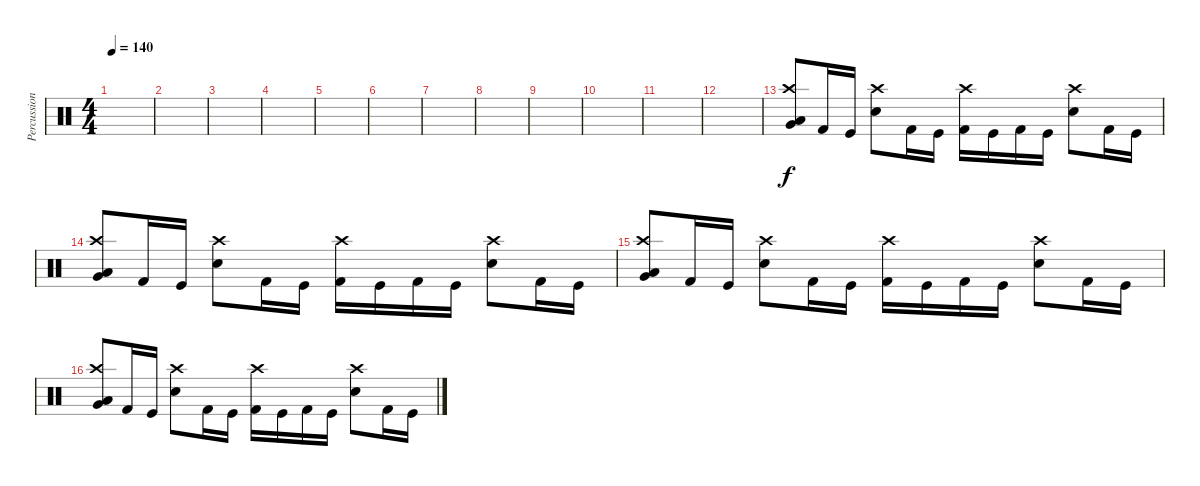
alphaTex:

\track ("Percussion" "Percussion") {instrument percussion}
\staff {score}
\articulation defaults
\ts (4 4)
\tempo 140
\clef neutral
\ks c
|
|
|
|
|
|
|
|
|
|
|
|
("Very Low Tom (hit)" "Crash high (hit)" "Low Tom (hit)").8 "Kick (hit) 2".16 "Kick (hit)".16 ("Electric Snare (hit)" "Crash high (hit)").8 "Kick (hit) 2".16 "Kick (hit)".16 ("Kick (hit) 2" "Crash high (hit)").16 "Kick (hit)".16 "Kick (hit) 2".16 "Kick (hit)".16 ("Electric Snare (hit)" "Crash high (hit)").8 "Kick (hit) 2".16 "Kick (hit)".16 |
("Very Low Tom (hit)" "Crash high (hit)" "Low Tom (hit)").8 "Kick (hit) 2".16 "Kick (hit)".16 ("Electric Snare (hit)" "Crash high (hit)").8 "Kick (hit) 2".16 "Kick (hit)".16 ("Kick (hit) 2" "Crash high (hit)").16 "Kick (hit)".16 "Kick (hit) 2".16 "Kick (hit)".16 ("Electric Snare (hit)" "Crash high (hit)").8 "Kick (hit) 2".16 "Kick (hit)".16 |
("Very Low Tom (hit)" "Crash high (hit)" "Low Tom (hit)").8 "Kick (hit) 2".16 "Kick (hit)".16 ("Electric Snare (hit)" "Crash high (hit)").8 "Kick (hit) 2".16 "Kick (hit)".16 ("Kick (hit) 2" "Crash high (hit)").16 "Kick (hit)".16 "Kick (hit) 2".16 "Kick (hit)".16 ("Electric Snare (hit)" "Crash high (hit)").8 "Kick (hit) 2".16 "Kick (hit)".16 |
("Very Low Tom (hit)" "Crash high (hit)" "Low Tom (hit)").8 "Kick (hit) 2".16 "Kick (hit)".16 ("Electric Snare (hit)" "Crash high (hit)").8 "Kick (hit) 2".16 "Kick (hit)".16 ("Kick (hit) 2" "Crash high (hit)").16 "Kick (hit)".16 "Kick (hit) 2".16 "Kick (hit)".16 ("Electric Snare (hit)" "Crash high (hit)").8 "Kick (hit) 2".16 "Kick (hit)".16
